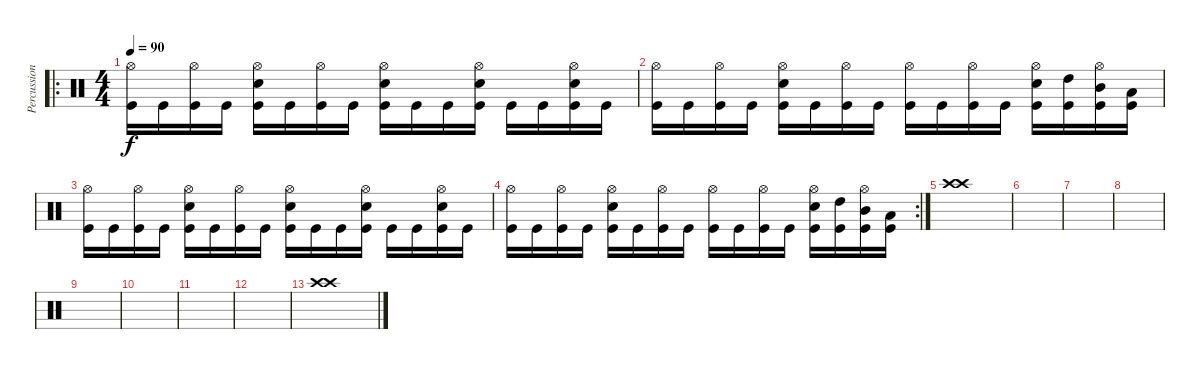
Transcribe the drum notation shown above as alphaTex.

\track ("Percussion" "Percussion") {instrument percussion}
\staff {score}
\articulation defaults
\ro
\ts (4 4)
\tempo 90
\clef neutral
\ks c
("Hi-Hat (open)" "Kick (hit)").16{dy f} "Kick (hit)".16 ("Hi-Hat (open)" "Kick (hit)").16 "Kick (hit)".16 ("Hi-Hat (open)" "Electric Snare (hit)" "Kick (hit)").16 "Kick (hit)".16 ("Hi-Hat (open)" "Kick (hit)").16 "Kick (hit)".16 ("Hi-Hat (open)" "Electric Snare (hit)" "Kick (hit)").16 "Kick (hit)".16 "Kick (hit)".16 ("Hi-Hat (open)" "Electric Snare (hit)" "Kick (hit)").16 "Kick (hit)".16 "Kick (hit)".16 ("Hi-Hat (open)" "Electric Snare (hit)" "Kick (hit)").16 "Kick (hit)".16 |
("Hi-Hat (open)" "Kick (hit)").16 "Kick (hit)".16 ("Hi-Hat (open)" "Kick (hit)").16 "Kick (hit)".16 ("Hi-Hat (open)" "Electric Snare (hit)" "Kick (hit)").16 "Kick (hit)".16 ("Hi-Hat (open)" "Kick (hit)").16 "Kick (hit)".16 ("Hi-Hat (open)" "Kick (hit)").16 "Kick (hit)".16 ("Hi-Hat (open)" "Kick (hit)").16 "Kick (hit)".16 ("Hi-Hat (open)" "Electric Snare (hit)" "Kick (hit)").16 ("High Tom (hit)" "Kick (hit)").16 ("Hi-Hat (open)" "Mid Tom (hit)" "Kick (hit)").16 ("Low Tom (hit)" "Kick (hit)").16 |
("Hi-Hat (open)" "Kick (hit)").16 "Kick (hit)".16 ("Hi-Hat (open)" "Kick (hit)").16 "Kick (hit)".16 ("Hi-Hat (open)" "Electric Snare (hit)" "Kick (hit)").16 "Kick (hit)".16 ("Hi-Hat (open)" "Kick (hit)").16 "Kick (hit)".16 ("Hi-Hat (open)" "Electric Snare (hit)" "Kick (hit)").16 "Kick (hit)".16 "Kick (hit)".16 ("Hi-Hat (open)" "Electric Snare (hit)" "Kick (hit)").16 "Kick (hit)".16 "Kick (hit)".16 ("Hi-Hat (open)" "Electric Snare (hit)" "Kick (hit)").16 "Kick (hit)".16 |
\rc 2
("Hi-Hat (open)" "Kick (hit)").16 "Kick (hit)".16 ("Hi-Hat (open)" "Kick (hit)").16 "Kick (hit)".16 ("Hi-Hat (open)" "Electric Snare (hit)" "Kick (hit)").16 "Kick (hit)".16 ("Hi-Hat (open)" "Kick (hit)").16 "Kick (hit)".16 ("Hi-Hat (open)" "Kick (hit)").16 "Kick (hit)".16 ("Hi-Hat (open)" "Kick (hit)").16 "Kick (hit)".16 ("Hi-Hat (open)" "Electric Snare (hit)" "Kick (hit)").16 ("High Tom (hit)" "Kick (hit)").16 ("Hi-Hat (open)" "Mid Tom (hit)" "Kick (hit)").16 ("Low Tom (hit)" "Kick (hit)").16 |
("Crash high (hit)" "Crash high (hit)").1 |
|
|
|
|
|
|
|
("Crash high (hit)" "Crash high (hit)").1
